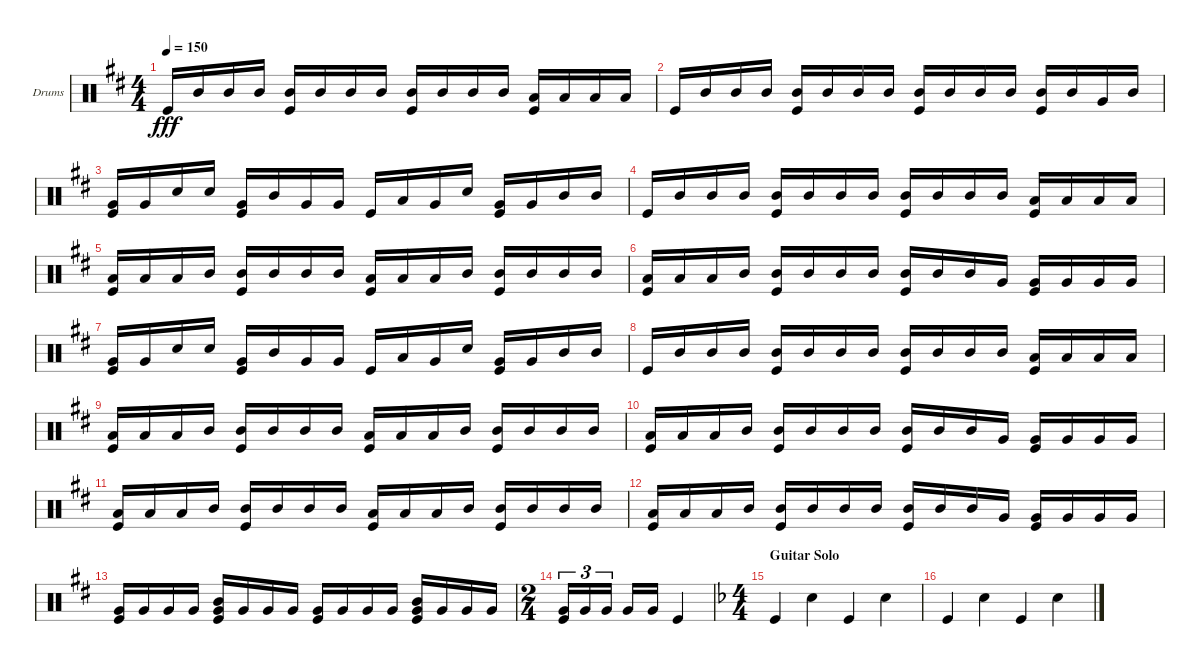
\defaultSystemsLayout 4
\bracketExtendMode groupsimilarinstruments
\firstSystemTrackNameOrientation horizontal
\otherSystemsTrackNameOrientation horizontal
\track ("Drumkit" "Drums") {instrument percussion}
\staff {score}
\articulation defaults
\ts (4 4)
\tempo 150
\clef neutral
\scale
0.333333
\ks d "Kick (hit)".16{dy fff} "Mid Tom (hit)".16 "Mid Tom (hit)".16 "Mid Tom (hit)".16
("Mid Tom (hit)" "Kick (hit)").16 "Mid Tom (hit)".16 "Mid Tom (hit)".16 "Mid Tom (hit)".16 ("Mid Tom (hit)" "Kick (hit)").16 "Mid Tom (hit)".16 "Mid Tom (hit)".16 "Mid Tom (hit)".16 ("Low Tom (hit)" "Kick (hit)").16 "Low Tom (hit)".16 "Low Tom (hit)".16 "Low Tom (hit)".16 |
\scale
0.333333 "Kick (hit)".16 "Mid Tom (hit)".16 "Mid Tom (hit)".16 "Mid Tom (hit)".16 ("Mid Tom (hit)" "Kick (hit)").16 "Mid Tom (hit)".16 "Mid Tom (hit)".16 "Mid Tom (hit)".16 ("Mid Tom (hit)" "Kick (hit)").16 "Mid Tom (hit)".16 "Mid Tom (hit)".16 "Mid Tom (hit)".16 ("Mid Tom (hit)" "Kick (hit)").16 "Mid Tom (hit)".16 "Very Low Tom (hit)".16 "Mid Tom (hit)".16 |
\scale
0.333333 ("Very Low Tom (hit)" "Kick (hit)").16 "Very Low Tom (hit)".16 "Snare (hit) 2".16 "Snare (hit) 2".16 ("Very Low Tom (hit)" "Kick (hit)").16 "Mid Tom (hit)".16 "Very Low Tom (hit)".16 "Very Low Tom (hit)".16 "Kick (hit)".16 "Low Tom (hit)".16 "Very Low Tom (hit)".16 "Snare (hit) 2".16 ("Very Low Tom (hit)" "Kick (hit)").16 "Very Low Tom (hit)".16 "Mid Tom (hit)".16 "Mid Tom (hit)".16 |
\scale
0.333333 "Kick (hit)".16 "Mid Tom (hit)".16 "Mid Tom (hit)".16 "Mid Tom (hit)".16 ("Mid Tom (hit)" "Kick (hit)").16 "Mid Tom (hit)".16 "Mid Tom (hit)".16 "Mid Tom (hit)".16 ("Mid Tom (hit)" "Kick (hit)").16 "Mid Tom (hit)".16 "Mid Tom (hit)".16 "Mid Tom (hit)".16 ("Low Tom (hit)" "Kick (hit)").16 "Low Tom (hit)".16 "Low Tom (hit)".16 "Low Tom (hit)".16 |
\scale
0.333333 ("Low Tom (hit)" "Kick (hit)").16 "Low Tom (hit)".16 "Low Tom (hit)".16 "Mid Tom (hit)".16 ("Mid Tom (hit)" "Kick (hit)").16 "Mid Tom (hit)".16 "Mid Tom (hit)".16 "Mid Tom (hit)".16 ("Low Tom (hit)" "Kick (hit)").16 "Low Tom (hit)".16 "Low Tom (hit)".16 "Mid Tom (hit)".16 ("Mid Tom (hit)" "Kick (hit)").16 "Mid Tom (hit)".16 "Mid Tom (hit)".16 "Mid Tom (hit)".16 |
\scale
0.333333 ("Low Tom (hit)" "Kick (hit)").16 "Low Tom (hit)".16 "Low Tom (hit)".16 "Mid Tom (hit)".16 ("Mid Tom (hit)" "Kick (hit)").16 "Mid Tom (hit)".16 "Mid Tom (hit)".16 "Mid Tom (hit)".16 ("Mid Tom (hit)" "Kick (hit)").16 "Mid Tom (hit)".16 "Mid Tom (hit)".16 "Very Low Tom (hit)".16 ("Very Low Tom (hit)" "Kick (hit)").16 "Very Low Tom (hit)".16 "Very Low Tom (hit)".16 "Very Low Tom (hit)".16 |
\scale
0.333333 ("Very Low Tom (hit)" "Kick (hit)").16 "Very Low Tom (hit)".16 "Snare (hit) 2".16 "Snare (hit) 2".16 ("Very Low Tom (hit)" "Kick (hit)").16 "Mid Tom (hit)".16 "Very Low Tom (hit)".16 "Very Low Tom (hit)".16 "Kick (hit)".16 "Low Tom (hit)".16 "Very Low Tom (hit)".16 "Snare (hit) 2".16 ("Very Low Tom (hit)" "Kick (hit)").16 "Very Low Tom (hit)".16 "Mid Tom (hit)".16 "Mid Tom (hit)".16 |
\scale
0.333333 "Kick (hit)".16 "Mid Tom (hit)".16 "Mid Tom (hit)".16 "Mid Tom (hit)".16 ("Mid Tom (hit)" "Kick (hit)").16 "Mid Tom (hit)".16 "Mid Tom (hit)".16 "Mid Tom (hit)".16 ("Mid Tom (hit)" "Kick (hit)").16 "Mid Tom (hit)".16 "Mid Tom (hit)".16 "Mid Tom (hit)".16 ("Low Tom (hit)" "Kick (hit)").16 "Low Tom (hit)".16 "Low Tom (hit)".16 "Low Tom (hit)".16 |
\scale
0.333333 ("Low Tom (hit)" "Kick (hit)").16 "Low Tom (hit)".16 "Low Tom (hit)".16 "Mid Tom (hit)".16 ("Mid Tom (hit)" "Kick (hit)").16 "Mid Tom (hit)".16 "Mid Tom (hit)".16 "Mid Tom (hit)".16 ("Low Tom (hit)" "Kick (hit)").16 "Low Tom (hit)".16 "Low Tom (hit)".16 "Mid Tom (hit)".16 ("Mid Tom (hit)" "Kick (hit)").16 "Mid Tom (hit)".16 "Mid Tom (hit)".16 "Mid Tom (hit)".16 |
\scale
0.333333 ("Low Tom (hit)" "Kick (hit)").16 "Low Tom (hit)".16 "Low Tom (hit)".16 "Mid Tom (hit)".16 ("Mid Tom (hit)" "Kick (hit)").16 "Mid Tom (hit)".16 "Mid Tom (hit)".16 "Mid Tom (hit)".16 ("Mid Tom (hit)" "Kick (hit)").16 "Mid Tom (hit)".16 "Mid Tom (hit)".16 "Very Low Tom (hit)".16 ("Very Low Tom (hit)" "Kick (hit)").16 "Very Low Tom (hit)".16 "Very Low Tom (hit)".16 "Very Low Tom (hit)".16 |
\scale
0.333333 ("Low Tom (hit)" "Kick (hit)").16 "Low Tom (hit)".16 "Low Tom (hit)".16 "Mid Tom (hit)".16 ("Mid Tom (hit)" "Kick (hit)").16 "Mid Tom (hit)".16 "Mid Tom (hit)".16 "Mid Tom (hit)".16 ("Low Tom (hit)" "Kick (hit)").16 "Low Tom (hit)".16 "Low Tom (hit)".16 "Mid Tom (hit)".16 ("Mid Tom (hit)" "Kick (hit)").16 "Mid Tom (hit)".16 "Mid Tom (hit)".16 "Mid Tom (hit)".16 |
\scale
0.333333 ("Low Tom (hit)" "Kick (hit)").16 "Low Tom (hit)".16 "Low Tom (hit)".16 "Mid Tom (hit)".16 ("Mid Tom (hit)" "Kick (hit)").16 "Mid Tom (hit)".16 "Mid Tom (hit)".16 "Mid Tom (hit)".16 ("Mid Tom (hit)" "Kick (hit)").16 "Mid Tom (hit)".16 "Mid Tom (hit)".16 "Very Low Tom (hit)".16 ("Very Low Tom (hit)" "Kick (hit)").16 "Very Low Tom (hit)".16 "Very Low Tom (hit)".16 "Very Low Tom (hit)".16 |
\scale
0.185065 ("Very Low Tom (hit)" "Kick (hit)").16 "Very Low Tom (hit)".16 "Very Low Tom (hit)".16 "Very Low Tom (hit)".16 ("Mid Tom (hit)" "Very Low Tom (hit)" "Kick (hit)").16 "Very Low Tom (hit)".16 "Very Low Tom (hit)".16 "Very Low Tom (hit)".16 ("Very Low Tom (hit)" "Kick (hit)").16 "Very Low Tom (hit)".16 "Very Low Tom (hit)".16 "Very Low Tom (hit)".16 ("Mid Tom (hit)" "Very Low Tom (hit)" "Kick (hit)").16 "Very Low Tom (hit)".16 "Very Low Tom (hit)".16 "Very Low Tom (hit)".16 |
\ts (2 4)
\scale
0.392857 ("Very Low Tom (hit)" "Kick (hit)").16{tu (3 2)} "Very Low Tom (hit)".16{tu (3 2)} "Very Low Tom (hit)".16{tu (3 2)} "Very Low Tom (hit)".16 "Very Low Tom (hit)".16 "Kick (hit)".4 |
\ts (4 4)
\section ("" "Guitar Solo")
\scale
0.422078
\ks f "Kick (hit)".4 "Snare (hit) 2".4 "Kick (hit)".4 "Snare (hit) 2".4
|
\scale
0.333333 "Kick (hit)".4 "Snare (hit) 2".4 "Kick (hit)".4 "Snare (hit) 2".4
